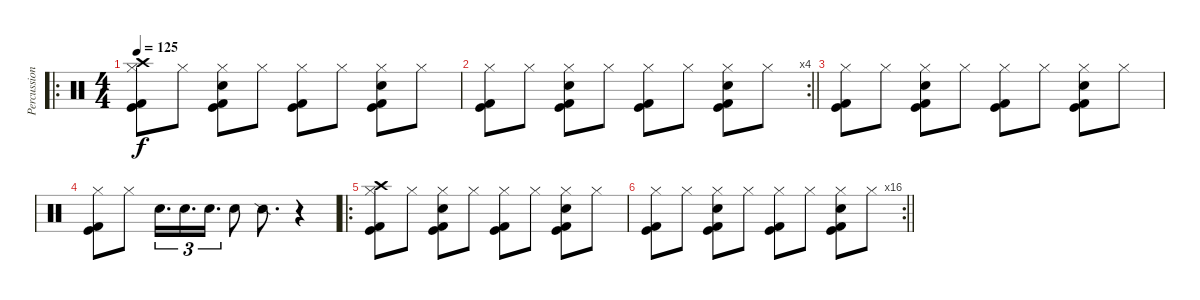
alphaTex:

\track ("Percussion" "Percussion") {instrument percussion}
\staff {score}
\articulation defaults
\ro
\ts (4 4)
\tempo 125
\clef neutral
\ks c
("Hi-Hat (closed)" "Crash high (hit)" "Kick (hit)" "Kick (hit) 2").8{dy f} "Hi-Hat (closed)".8 ("Hi-Hat (closed)" "Snare (hit) 2" "Kick (hit)" "Kick (hit) 2").8 "Hi-Hat (closed)".8 ("Hi-Hat (closed)" "Kick (hit)" "Kick (hit) 2").8 "Hi-Hat (closed)".8 ("Hi-Hat (closed)" "Snare (hit) 2" "Kick (hit)" "Kick (hit) 2").8 "Hi-Hat (closed)".8 |
\rc 4
\barLineRight lightlight
("Hi-Hat (closed)" "Kick (hit)" "Kick (hit) 2").8 "Hi-Hat (closed)".8 ("Hi-Hat (closed)" "Snare (hit) 2" "Kick (hit)" "Kick (hit) 2").8 "Hi-Hat (closed)".8 ("Hi-Hat (closed)" "Kick (hit)" "Kick (hit) 2").8 "Hi-Hat (closed)".8 ("Hi-Hat (closed)" "Snare (hit) 2" "Kick (hit)" "Kick (hit) 2").8 "Hi-Hat (closed)".8 |
("Hi-Hat (closed)" "Kick (hit)" "Kick (hit) 2").8 "Hi-Hat (closed)".8 ("Hi-Hat (closed)" "Snare (hit) 2" "Kick (hit)" "Kick (hit) 2").8 "Hi-Hat (closed)".8 ("Hi-Hat (closed)" "Kick (hit)" "Kick (hit) 2").8 "Hi-Hat (closed)".8 ("Hi-Hat (closed)" "Snare (hit) 2" "Kick (hit)" "Kick (hit) 2").8 "Hi-Hat (closed)".8 |
("Hi-Hat (closed)" "Kick (hit)" "Kick (hit) 2").8 "Hi-Hat (closed)".8 "Snare (hit) 2".16{d tu (3 2) beam merge} "Snare (hit) 2".16{d tu (3 2) beam merge} "Snare (hit) 2".16{d tu (3 2)} "Snare (hit) 2".8 "Snare (side stick) 2".8{d} r.4 |
\ro
("Hi-Hat (closed)" "Crash high (hit)" "Kick (hit)" "Kick (hit) 2").8 "Hi-Hat (closed)".8 ("Hi-Hat (closed)" "Snare (hit) 2" "Kick (hit)" "Kick (hit) 2").8 "Hi-Hat (closed)".8 ("Hi-Hat (closed)" "Kick (hit)" "Kick (hit) 2").8 "Hi-Hat (closed)".8 ("Hi-Hat (closed)" "Snare (hit) 2" "Kick (hit)" "Kick (hit) 2").8 "Hi-Hat (closed)".8 |
\rc 16
\barLineRight lightlight
("Hi-Hat (closed)" "Kick (hit)" "Kick (hit) 2").8 "Hi-Hat (closed)".8 ("Hi-Hat (closed)" "Snare (hit) 2" "Kick (hit)" "Kick (hit) 2").8 "Hi-Hat (closed)".8 ("Hi-Hat (closed)" "Kick (hit)" "Kick (hit) 2").8 "Hi-Hat (closed)".8 ("Hi-Hat (closed)" "Snare (hit) 2" "Kick (hit)" "Kick (hit) 2").8 "Hi-Hat (closed)".8
